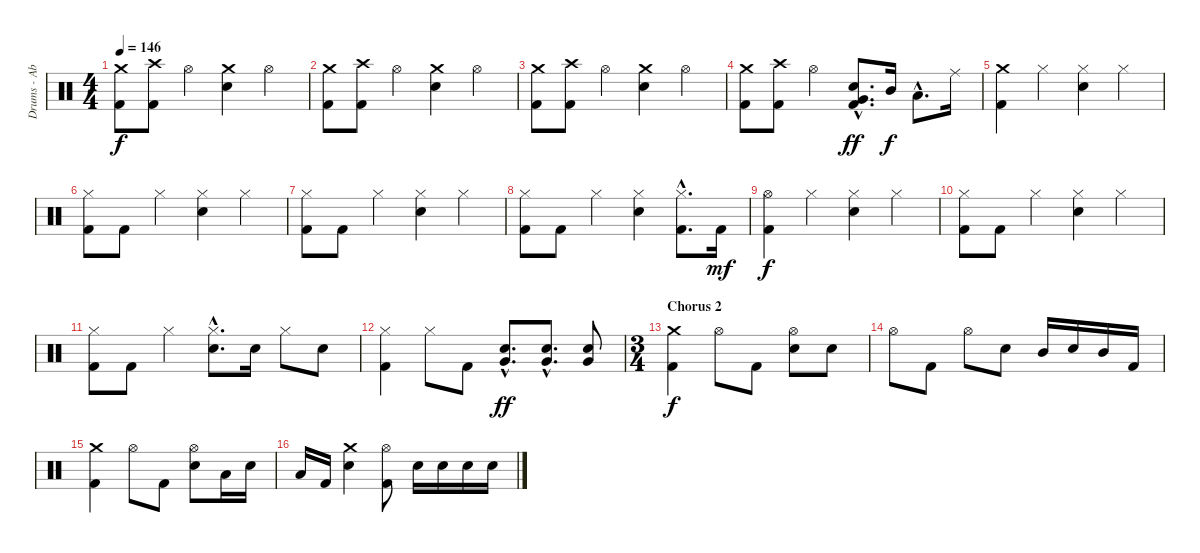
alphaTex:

\track ("Drums - Abe Cunningham" "Drums - Ab") {instrument percussion}
\staff {score}
\articulation defaults
\ts (4 4)
\tempo 146
\clef neutral
\ks c
("Crash medium (hit)" "Kick (hit) 2").8{dy f} ("Crash high (hit)" "Kick (hit) 2").8 "Hi-Hat (open)".4 ("Crash medium (hit)" "Electric Snare (hit)").4 "Hi-Hat (open)".4 |
("Crash medium (hit)" "Kick (hit) 2").8 ("Crash high (hit)" "Kick (hit) 2").8 "Hi-Hat (open)".4 ("Crash medium (hit)" "Electric Snare (hit)").4 "Hi-Hat (open)".4 |
("Crash medium (hit)" "Kick (hit) 2").8 ("Crash high (hit)" "Kick (hit) 2").8 "Hi-Hat (open)".4 ("Crash medium (hit)" "Electric Snare (hit)").4 "Hi-Hat (open)".4 |
("Crash medium (hit)" "Kick (hit) 2").8 ("Crash high (hit)" "Kick (hit) 2").8 "Hi-Hat (open)".4 ("Electric Snare (hit)"{hac} "Very Low Tom (hit)"{hac} "Kick (hit) 2"{hac}).8{d dy ff} "Mid Tom (hit)".16{dy f} "Low Tom (hit)"{hac}.8{d} "Ride (middle)".16 |
("Crash medium (hit)" "Kick (hit) 2").4 "Hi-Hat (closed)".4 ("Hi-Hat (closed)" "Electric Snare (hit)").4 "Hi-Hat (closed)".4 |
("Hi-Hat (closed)" "Kick (hit) 2").8 "Kick (hit) 2".8 "Hi-Hat (closed)".4 ("Hi-Hat (closed)" "Electric Snare (hit)").4 "Hi-Hat (closed)".4 |
("Hi-Hat (closed)" "Kick (hit) 2").8 "Kick (hit) 2".8 "Hi-Hat (closed)".4 ("Hi-Hat (closed)" "Electric Snare (hit)").4 "Hi-Hat (closed)".4 |
("Hi-Hat (closed)" "Kick (hit) 2").8 "Kick (hit) 2".8 "Hi-Hat (closed)".4 ("Hi-Hat (closed)" "Electric Snare (hit)").4 ("Hi-Hat (closed)"{hac} "Kick (hit) 2"{hac}).8{d} "Kick (hit) 2".16{dy mf} |
("Hi-Hat (open)" "Kick (hit) 2").4{dy f} "Hi-Hat (closed)".4 ("Hi-Hat (closed)" "Electric Snare (hit)").4 "Hi-Hat (closed)".4 |
("Hi-Hat (closed)" "Kick (hit) 2").8 "Kick (hit) 2".8 "Hi-Hat (closed)".4 ("Hi-Hat (closed)" "Electric Snare (hit)").4 "Hi-Hat (closed)".4 |
("Hi-Hat (closed)" "Kick (hit) 2").8 "Kick (hit) 2".8 "Hi-Hat (closed)".4 ("Hi-Hat (closed)"{hac} "Electric Snare (hit)"{hac}).8{d} "Electric Snare (hit)".16 "Hi-Hat (closed)".8 "Electric Snare (hit)".8 |
("Hi-Hat (closed)" "Kick (hit) 2").4 "Hi-Hat (closed)".8 "Kick (hit) 2".8 ("Electric Snare (hit)"{hac} "Very Low Tom (hit)"{hac}).8{d dy ff} ("Electric Snare (hit)"{hac} "Very Low Tom (hit)"{hac}).8{d} ("Electric Snare (hit)" "Very Low Tom (hit)").8 |
\ts (3 4)
\section ("" "Chorus 2")
("Crash medium (hit)" "Kick (hit) 2").4{dy f} "Hi-Hat (open)".8 "Kick (hit) 2".8 ("Hi-Hat (open)" "Electric Snare (hit)").8 "Electric Snare (hit)".8 |
"Hi-Hat (open)".8 "Kick (hit) 2".8 "Hi-Hat (open)".8 "Electric Snare (hit)".8 "Mid Tom (hit)".16 "Electric Snare (hit)".16 "Mid Tom (hit)".16 "Kick (hit) 2".16 |
("Crash medium (hit)" "Kick (hit) 2").4 "Hi-Hat (open)".8 "Kick (hit) 2".8 ("Hi-Hat (open)" "Electric Snare (hit)").8 "Low Tom (hit)".16 "Electric Snare (hit)".16 |
"Low Tom (hit)".16 "Kick (hit) 2".16 ("Crash medium (hit)" "Electric Snare (hit)").4 ("Hi-Hat (open)" "Kick (hit) 2").8 "Electric Snare (hit)".16 "Electric Snare (hit)".16 "Electric Snare (hit)".16 "Electric Snare (hit)".16
